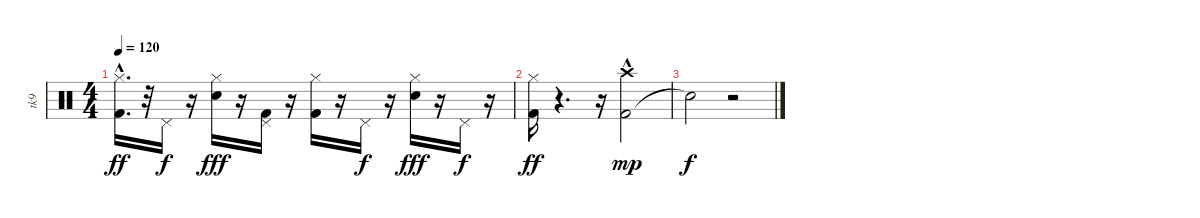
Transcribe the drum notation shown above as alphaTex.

\track ("tk9" "tk9") {instrument percussion}
\staff {score}
\articulation defaults
\ts (4 4)
\tempo 120
\clef neutral
\ks c
("Kick (hit) 2"{hac} "Hi-Hat (closed)").16{d dy ff} r.32 "Pedal Hi-Hat (hit)".16{dy f} r.16 ("Hi-Hat (closed)" "Snare (hit) 2").16{dy fff} r.16 ("Pedal Hi-Hat (hit)" "Kick (hit) 2").16 r.16 ("Hi-Hat (closed)" "Kick (hit) 2").16 r.16 "Pedal Hi-Hat (hit)".16{dy f} r.16 ("Hi-Hat (closed)" "Snare (hit) 2").16{dy fff} r.16 "Pedal Hi-Hat (hit)".16{dy f} r.16 |
("Kick (hit) 2" "Hi-Hat (closed)").16{dy ff} r.4{d} r.16 ("Kick (hit) 2"{hac} "Crash high (hit)").2{dy mp} |
"Snare (hit)"{t}.2{dy f} r.2
